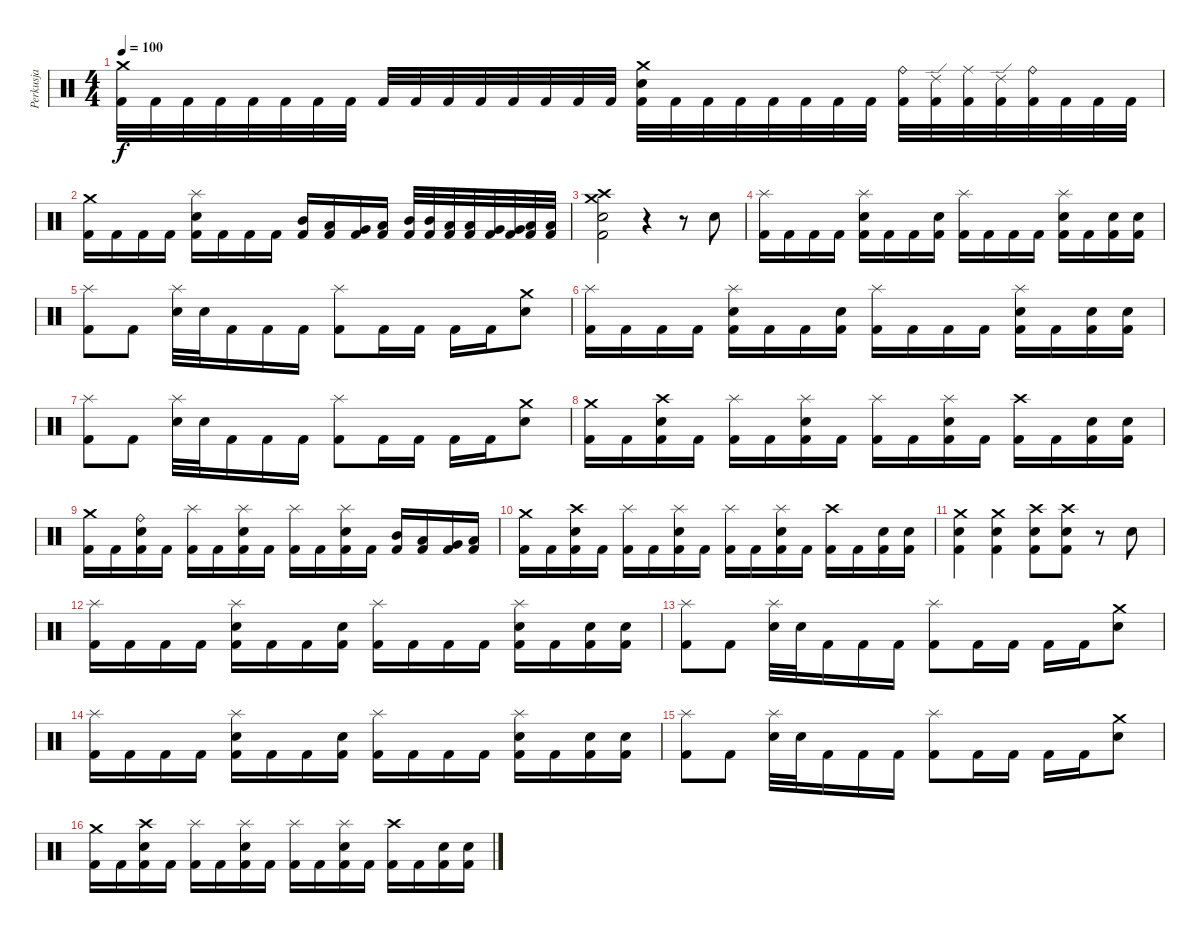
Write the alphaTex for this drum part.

\track ("Perkusja" "Perkusja") {instrument percussion}
\staff {score}
\articulation defaults
\ts (4 4)
\tempo 100
\clef neutral
\ks c
("Crash medium (hit)" "Kick (hit) 2").32{dy f} "Kick (hit) 2".32 "Kick (hit) 2".32 "Kick (hit) 2".32 "Kick (hit) 2".32 "Kick (hit) 2".32 "Kick (hit) 2".32 "Kick (hit) 2".32 "Kick (hit) 2".32 "Kick (hit) 2".32 "Kick (hit) 2".32 "Kick (hit) 2".32 "Kick (hit) 2".32 "Kick (hit) 2".32 "Kick (hit) 2".32 "Kick (hit) 2".32 ("Crash medium (hit)" "Electric Snare (hit)" "Kick (hit) 2").32 "Kick (hit) 2".32 "Kick (hit) 2".32 "Kick (hit) 2".32 "Kick (hit) 2".32 "Kick (hit) 2".32 "Kick (hit) 2".32 "Kick (hit) 2".32 ("Ride (bell)" "Kick (hit) 2").32 ("Ride (edge) 2" "Kick (hit) 2").32 ("Ride (middle)" "Kick (hit) 2").32 ("Ride (edge) 2" "Kick (hit) 2").32 ("Ride (bell)" "Kick (hit) 2").32 "Kick (hit) 2".32 "Kick (hit) 2".32 "Kick (hit) 2".32 |
("Crash medium (hit)" "Kick (hit) 2").16 "Kick (hit) 2".16 "Kick (hit) 2".16 "Kick (hit) 2".16 ("Splash (hit)" "Electric Snare (hit)" "Kick (hit) 2").16 "Kick (hit) 2".16 "Kick (hit) 2".16 "Kick (hit) 2".16 ("Mid Tom (hit)" "Kick (hit) 2").16 ("Low Tom (hit)" "Kick (hit) 2").16 ("Very Low Tom (hit)" "Kick (hit) 2").16 ("Low Floor Tom (hit)" "Kick (hit) 2").16 ("Mid Tom (hit)" "Kick (hit) 2").32 ("Mid Tom (hit)" "Kick (hit) 2").32 ("Low Tom (hit)" "Kick (hit) 2").32 ("Low Tom (hit)" "Kick (hit) 2").32 ("Very Low Tom (hit)" "Kick (hit) 2").32 ("Very Low Tom (hit)" "Kick (hit) 2").32 ("Low Floor Tom (hit)" "Kick (hit) 2").32 ("Low Floor Tom (hit)" "Kick (hit) 2").32 |
("Snare (hit) 2" "Kick (hit) 2" "Crash high (hit)" "Crash medium (hit)").2 r.4 r.8 "Electric Snare (hit)".8 |
("Splash (hit)" "Kick (hit) 2").16 "Kick (hit) 2".16 "Kick (hit) 2".16 "Kick (hit) 2".16 ("Splash (hit)" "Electric Snare (hit)" "Kick (hit) 2").16 "Kick (hit) 2".16 "Kick (hit) 2".16 ("Electric Snare (hit)" "Kick (hit) 2").16 ("Splash (hit)" "Kick (hit) 2").16 "Kick (hit) 2".16 "Kick (hit) 2".16 "Kick (hit) 2".16 ("Splash (hit)" "Electric Snare (hit)" "Kick (hit) 2").16 "Kick (hit) 2".16 ("Electric Snare (hit)" "Kick (hit) 2").16 ("Electric Snare (hit)" "Kick (hit) 2").16 |
("Splash (hit)" "Kick (hit) 2").8 "Kick (hit) 2".8 ("Splash (hit)" "Electric Snare (hit)").32 "Electric Snare (hit)".32 "Kick (hit) 2".16 "Kick (hit) 2".16 "Kick (hit) 2".16 ("Splash (hit)" "Kick (hit) 2").8 "Kick (hit) 2".16 "Kick (hit) 2".16 "Kick (hit) 2".16 "Kick (hit) 2".16 ("Electric Snare (hit)" "Crash medium (hit)").8 |
("Splash (hit)" "Kick (hit) 2").16 "Kick (hit) 2".16 "Kick (hit) 2".16 "Kick (hit) 2".16 ("Splash (hit)" "Electric Snare (hit)" "Kick (hit) 2").16 "Kick (hit) 2".16 "Kick (hit) 2".16 ("Electric Snare (hit)" "Kick (hit) 2").16 ("Splash (hit)" "Kick (hit) 2").16 "Kick (hit) 2".16 "Kick (hit) 2".16 "Kick (hit) 2".16 ("Splash (hit)" "Electric Snare (hit)" "Kick (hit) 2").16 "Kick (hit) 2".16 ("Electric Snare (hit)" "Kick (hit) 2").16 ("Electric Snare (hit)" "Kick (hit) 2").16 |
("Splash (hit)" "Kick (hit) 2").8 "Kick (hit) 2".8 ("Splash (hit)" "Electric Snare (hit)").32 "Electric Snare (hit)".32 "Kick (hit) 2".16 "Kick (hit) 2".16 "Kick (hit) 2".16 ("Splash (hit)" "Kick (hit) 2").8 "Kick (hit) 2".16 "Kick (hit) 2".16 "Kick (hit) 2".16 "Kick (hit) 2".16 ("Electric Snare (hit)" "Crash medium (hit)").8 |
("Crash medium (hit)" "Kick (hit) 2").16 "Kick (hit) 2".16 ("Crash high (hit)" "Electric Snare (hit)" "Kick (hit) 2").16 "Kick (hit) 2".16 ("Splash (hit)" "Kick (hit) 2").16 "Kick (hit) 2".16 ("Splash (hit)" "Electric Snare (hit)" "Kick (hit) 2").16 "Kick (hit) 2".16 ("Splash (hit)" "Kick (hit) 2").16 "Kick (hit) 2".16 ("Splash (hit)" "Electric Snare (hit)" "Kick (hit) 2").16 "Kick (hit) 2".16 ("Crash high (hit)" "Kick (hit) 2").16 "Kick (hit) 2".16 ("Electric Snare (hit)" "Kick (hit) 2").16 ("Kick (hit) 2" "Electric Snare (hit)").16 |
("Crash medium (hit)" "Kick (hit) 2").16 "Kick (hit) 2".16 ("Ride (bell)" "Electric Snare (hit)" "Kick (hit) 2").16 "Kick (hit) 2".16 ("Splash (hit)" "Kick (hit) 2").16 "Kick (hit) 2".16 ("Splash (hit)" "Electric Snare (hit)" "Kick (hit) 2").16 "Kick (hit) 2".16 ("Splash (hit)" "Kick (hit) 2").16 "Kick (hit) 2".16 ("Splash (hit)" "Electric Snare (hit)" "Kick (hit) 2").16 "Kick (hit) 2".16 ("Mid Tom (hit)" "Kick (hit) 2").16 ("Low Tom (hit)" "Kick (hit) 2").16 ("Very Low Tom (hit)" "Kick (hit) 2").16 ("Low Floor Tom (hit)" "Kick (hit) 2").16 |
("Crash medium (hit)" "Kick (hit) 2").16 "Kick (hit) 2".16 ("Crash high (hit)" "Electric Snare (hit)" "Kick (hit) 2").16 "Kick (hit) 2".16 ("Splash (hit)" "Kick (hit) 2").16 "Kick (hit) 2".16 ("Splash (hit)" "Electric Snare (hit)" "Kick (hit) 2").16 "Kick (hit) 2".16 ("Splash (hit)" "Kick (hit) 2").16 "Kick (hit) 2".16 ("Splash (hit)" "Electric Snare (hit)" "Kick (hit) 2").16 "Kick (hit) 2".16 ("Crash high (hit)" "Kick (hit) 2").16 "Kick (hit) 2".16 ("Electric Snare (hit)" "Kick (hit) 2").16 ("Kick (hit) 2" "Electric Snare (hit)").16 |
("Crash medium (hit)" "Electric Snare (hit)" "Kick (hit) 2").4 ("Crash medium (hit)" "Electric Snare (hit)" "Kick (hit) 2").4 ("Crash high (hit)" "Snare (hit) 2" "Kick (hit) 2").8 ("Crash high (hit)" "Snare (hit) 2" "Kick (hit) 2").8 r.8 "Electric Snare (hit)".8 |
("Splash (hit)" "Kick (hit) 2").16 "Kick (hit) 2".16 "Kick (hit) 2".16 "Kick (hit) 2".16 ("Splash (hit)" "Electric Snare (hit)" "Kick (hit) 2").16 "Kick (hit) 2".16 "Kick (hit) 2".16 ("Electric Snare (hit)" "Kick (hit) 2").16 ("Splash (hit)" "Kick (hit) 2").16 "Kick (hit) 2".16 "Kick (hit) 2".16 "Kick (hit) 2".16 ("Splash (hit)" "Electric Snare (hit)" "Kick (hit) 2").16 "Kick (hit) 2".16 ("Electric Snare (hit)" "Kick (hit) 2").16 ("Electric Snare (hit)" "Kick (hit) 2").16 |
("Splash (hit)" "Kick (hit) 2").8 "Kick (hit) 2".8 ("Splash (hit)" "Electric Snare (hit)").32 "Electric Snare (hit)".32 "Kick (hit) 2".16 "Kick (hit) 2".16 "Kick (hit) 2".16 ("Splash (hit)" "Kick (hit) 2").8 "Kick (hit) 2".16 "Kick (hit) 2".16 "Kick (hit) 2".16 "Kick (hit) 2".16 ("Electric Snare (hit)" "Crash medium (hit)").8 |
("Splash (hit)" "Kick (hit) 2").16 "Kick (hit) 2".16 "Kick (hit) 2".16 "Kick (hit) 2".16 ("Splash (hit)" "Electric Snare (hit)" "Kick (hit) 2").16 "Kick (hit) 2".16 "Kick (hit) 2".16 ("Electric Snare (hit)" "Kick (hit) 2").16 ("Splash (hit)" "Kick (hit) 2").16 "Kick (hit) 2".16 "Kick (hit) 2".16 "Kick (hit) 2".16 ("Splash (hit)" "Electric Snare (hit)" "Kick (hit) 2").16 "Kick (hit) 2".16 ("Electric Snare (hit)" "Kick (hit) 2").16 ("Electric Snare (hit)" "Kick (hit) 2").16 |
("Splash (hit)" "Kick (hit) 2").8 "Kick (hit) 2".8 ("Splash (hit)" "Electric Snare (hit)").32 "Electric Snare (hit)".32 "Kick (hit) 2".16 "Kick (hit) 2".16 "Kick (hit) 2".16 ("Splash (hit)" "Kick (hit) 2").8 "Kick (hit) 2".16 "Kick (hit) 2".16 "Kick (hit) 2".16 "Kick (hit) 2".16 ("Electric Snare (hit)" "Crash medium (hit)").8 |
("Crash medium (hit)" "Kick (hit) 2").16{volume 13} "Kick (hit) 2".16 ("Crash high (hit)" "Electric Snare (hit)" "Kick (hit) 2").16{volume 12} "Kick (hit) 2".16 ("Splash (hit)" "Kick (hit) 2").16{volume 11} "Kick (hit) 2".16 ("Splash (hit)" "Electric Snare (hit)" "Kick (hit) 2").16{volume 10} "Kick (hit) 2".16 ("Splash (hit)" "Kick (hit) 2").16{volume 9} "Kick (hit) 2".16 ("Splash (hit)" "Electric Snare (hit)" "Kick (hit) 2").16{volume 8} "Kick (hit) 2".16 ("Crash high (hit)" "Kick (hit) 2").16{volume 7} "Kick (hit) 2".16 ("Electric Snare (hit)" "Kick (hit) 2").16{volume 6} ("Kick (hit) 2" "Electric Snare (hit)").16
